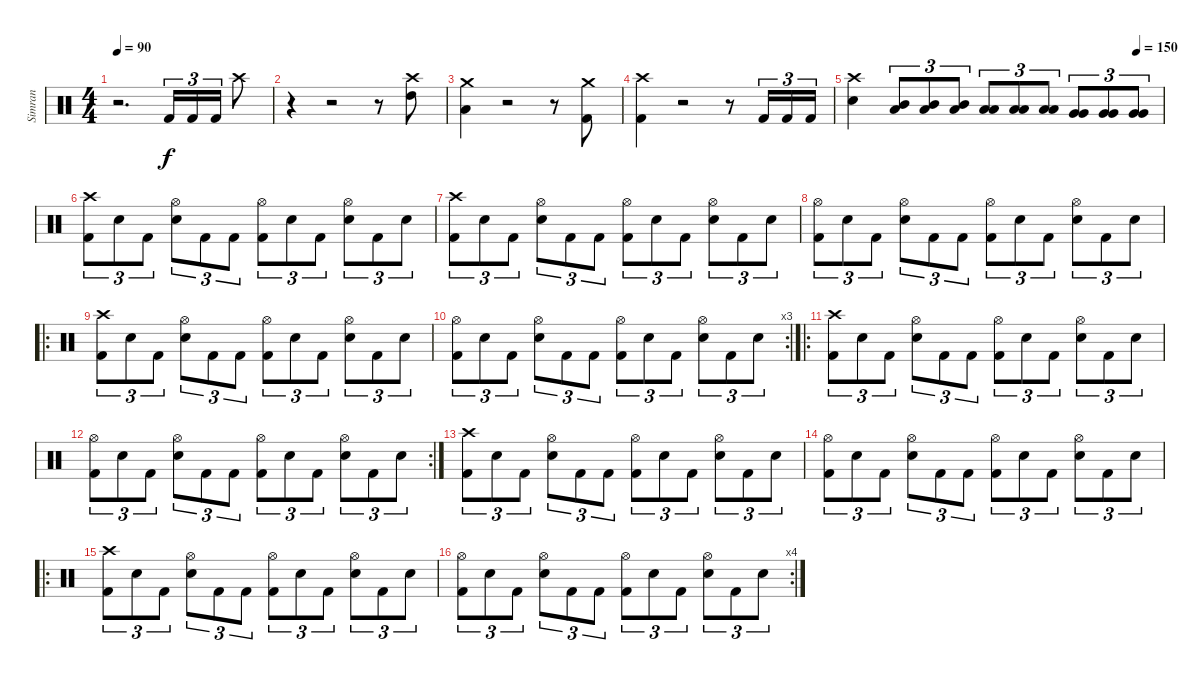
\track ("Simran" "Simran") {instrument percussion}
\staff {score}
\articulation defaults
\ts (4 4)
\tempo 90
\clef neutral
\ks c
r.2{d dy f} "Kick (hit) 2".16{tu (3 2)} "Kick (hit) 2".16{tu (3 2)} "Kick (hit) 2".16{tu (3 2)} "Crash high (hit)".8 |
r.4 r.2 r.8 ("Crash high (hit)" "High Tom (hit)").8 |
("Low Tom (hit)" "Crash medium (hit)").4 r.2 r.8 ("Crash medium (hit)" "Kick (hit) 2").8 |
("Crash high (hit)" "Kick (hit) 2").4 r.2 r.8 "Kick (hit) 2".16{tu (3 2)} "Kick (hit) 2".16{tu (3 2)} "Kick (hit) 2".16{tu (3 2)} |
\tempo (150 0.9166666666666666)
("Snare (hit) 2" "Crash high (hit)").4 ("Low Tom (hit)" "Mid Tom (hit)").8{tu (3 2)} ("Low Tom (hit)" "Mid Tom (hit)").8{tu (3 2)} ("Low Tom (hit)" "Mid Tom (hit)").8{tu (3 2)} ("Low Tom (hit)" "Low Tom (hit)").8{tu (3 2)} ("Low Tom (hit)" "Low Tom (hit)").8{tu (3 2)} ("Low Tom (hit)" "Low Tom (hit)").8{tu (3 2)} ("Very Low Tom (hit)" "Very Low Tom (hit)").8{tu (3 2)} ("Very Low Tom (hit)" "Very Low Tom (hit)").8{tu (3 2)} ("Very Low Tom (hit)" "Very Low Tom (hit)").8{tu (3 2)} |
("Crash high (hit)" "Kick (hit) 2").8{tu (3 2)} "Snare (hit)".8{tu (3 2)} "Kick (hit) 2".8{tu (3 2)} ("Hi-Hat (open)" "Snare (hit) 2").8{tu (3 2)} "Kick (hit) 2".8{tu (3 2)} "Kick (hit) 2".8{tu (3 2)} ("Hi-Hat (open)" "Kick (hit) 2").8{tu (3 2)} "Snare (hit)".8{tu (3 2)} "Kick (hit) 2".8{tu (3 2)} ("Hi-Hat (open)" "Snare (hit) 2").8{tu (3 2)} "Kick (hit) 2".8{tu (3 2)} "Snare (hit)".8{tu (3 2)} |
("Crash high (hit)" "Kick (hit) 2").8{tu (3 2)} "Snare (hit)".8{tu (3 2)} "Kick (hit) 2".8{tu (3 2)} ("Hi-Hat (open)" "Snare (hit) 2").8{tu (3 2)} "Kick (hit) 2".8{tu (3 2)} "Kick (hit) 2".8{tu (3 2)} ("Hi-Hat (open)" "Kick (hit) 2").8{tu (3 2)} "Snare (hit)".8{tu (3 2)} "Kick (hit) 2".8{tu (3 2)} ("Hi-Hat (open)" "Snare (hit) 2").8{tu (3 2)} "Kick (hit) 2".8{tu (3 2)} "Snare (hit)".8{tu (3 2)} |
("Hi-Hat (open)" "Kick (hit) 2").8{tu (3 2)} "Snare (hit)".8{tu (3 2)} "Kick (hit) 2".8{tu (3 2)} ("Hi-Hat (open)" "Snare (hit) 2").8{tu (3 2)} "Kick (hit) 2".8{tu (3 2)} "Kick (hit) 2".8{tu (3 2)} ("Hi-Hat (open)" "Kick (hit) 2").8{tu (3 2)} "Snare (hit)".8{tu (3 2)} "Kick (hit) 2".8{tu (3 2)} ("Hi-Hat (open)" "Snare (hit) 2").8{tu (3 2)} "Kick (hit) 2".8{tu (3 2)} "Snare (hit)".8{tu (3 2)} |
\ro
("Crash high (hit)" "Kick (hit) 2").8{tu (3 2)} "Snare (hit)".8{tu (3 2)} "Kick (hit) 2".8{tu (3 2)} ("Hi-Hat (open)" "Snare (hit) 2").8{tu (3 2)} "Kick (hit) 2".8{tu (3 2)} "Kick (hit) 2".8{tu (3 2)} ("Hi-Hat (open)" "Kick (hit) 2").8{tu (3 2)} "Snare (hit)".8{tu (3 2)} "Kick (hit) 2".8{tu (3 2)} ("Hi-Hat (open)" "Snare (hit) 2").8{tu (3 2)} "Kick (hit) 2".8{tu (3 2)} "Snare (hit)".8{tu (3 2)} |
\rc 3
("Hi-Hat (open)" "Kick (hit) 2").8{tu (3 2)} "Snare (hit)".8{tu (3 2)} "Kick (hit) 2".8{tu (3 2)} ("Hi-Hat (open)" "Snare (hit) 2").8{tu (3 2)} "Kick (hit) 2".8{tu (3 2)} "Kick (hit) 2".8{tu (3 2)} ("Hi-Hat (open)" "Kick (hit) 2").8{tu (3 2)} "Snare (hit)".8{tu (3 2)} "Kick (hit) 2".8{tu (3 2)} ("Hi-Hat (open)" "Snare (hit) 2").8{tu (3 2)} "Kick (hit) 2".8{tu (3 2)} "Snare (hit)".8{tu (3 2)} |
\ro
("Crash high (hit)" "Kick (hit) 2").8{tu (3 2)} "Snare (hit)".8{tu (3 2)} "Kick (hit) 2".8{tu (3 2)} ("Hi-Hat (open)" "Snare (hit) 2").8{tu (3 2)} "Kick (hit) 2".8{tu (3 2)} "Kick (hit) 2".8{tu (3 2)} ("Hi-Hat (open)" "Kick (hit) 2").8{tu (3 2)} "Snare (hit)".8{tu (3 2)} "Kick (hit) 2".8{tu (3 2)} ("Hi-Hat (open)" "Snare (hit) 2").8{tu (3 2)} "Kick (hit) 2".8{tu (3 2)} "Snare (hit)".8{tu (3 2)} |
\rc 2
("Hi-Hat (open)" "Kick (hit) 2").8{tu (3 2)} "Snare (hit)".8{tu (3 2)} "Kick (hit) 2".8{tu (3 2)} ("Hi-Hat (open)" "Snare (hit) 2").8{tu (3 2)} "Kick (hit) 2".8{tu (3 2)} "Kick (hit) 2".8{tu (3 2)} ("Hi-Hat (open)" "Kick (hit) 2").8{tu (3 2)} "Snare (hit)".8{tu (3 2)} "Kick (hit) 2".8{tu (3 2)} ("Hi-Hat (open)" "Snare (hit) 2").8{tu (3 2)} "Kick (hit) 2".8{tu (3 2)} "Snare (hit)".8{tu (3 2)} |
("Crash high (hit)" "Kick (hit) 2").8{tu (3 2)} "Snare (hit)".8{tu (3 2)} "Kick (hit) 2".8{tu (3 2)} ("Hi-Hat (open)" "Snare (hit) 2").8{tu (3 2)} "Kick (hit) 2".8{tu (3 2)} "Kick (hit) 2".8{tu (3 2)} ("Hi-Hat (open)" "Kick (hit) 2").8{tu (3 2)} "Snare (hit)".8{tu (3 2)} "Kick (hit) 2".8{tu (3 2)} ("Hi-Hat (open)" "Snare (hit) 2").8{tu (3 2)} "Kick (hit) 2".8{tu (3 2)} "Snare (hit)".8{tu (3 2)} |
("Hi-Hat (open)" "Kick (hit) 2").8{tu (3 2)} "Snare (hit)".8{tu (3 2)} "Kick (hit) 2".8{tu (3 2)} ("Hi-Hat (open)" "Snare (hit) 2").8{tu (3 2)} "Kick (hit) 2".8{tu (3 2)} "Kick (hit) 2".8{tu (3 2)} ("Hi-Hat (open)" "Kick (hit) 2").8{tu (3 2)} "Snare (hit)".8{tu (3 2)} "Kick (hit) 2".8{tu (3 2)} ("Hi-Hat (open)" "Snare (hit) 2").8{tu (3 2)} "Kick (hit) 2".8{tu (3 2)} "Snare (hit)".8{tu (3 2)} |
\ro
("Crash high (hit)" "Kick (hit) 2").8{tu (3 2)} "Snare (hit)".8{tu (3 2)} "Kick (hit) 2".8{tu (3 2)} ("Hi-Hat (open)" "Snare (hit) 2").8{tu (3 2)} "Kick (hit) 2".8{tu (3 2)} "Kick (hit) 2".8{tu (3 2)} ("Hi-Hat (open)" "Kick (hit) 2").8{tu (3 2)} "Snare (hit)".8{tu (3 2)} "Kick (hit) 2".8{tu (3 2)} ("Hi-Hat (open)" "Snare (hit) 2").8{tu (3 2)} "Kick (hit) 2".8{tu (3 2)} "Snare (hit)".8{tu (3 2)} |
\rc 4
("Hi-Hat (open)" "Kick (hit) 2").8{tu (3 2)} "Snare (hit)".8{tu (3 2)} "Kick (hit) 2".8{tu (3 2)} ("Hi-Hat (open)" "Snare (hit) 2").8{tu (3 2)} "Kick (hit) 2".8{tu (3 2)} "Kick (hit) 2".8{tu (3 2)} ("Hi-Hat (open)" "Kick (hit) 2").8{tu (3 2)} "Snare (hit)".8{tu (3 2)} "Kick (hit) 2".8{tu (3 2)} ("Hi-Hat (open)" "Snare (hit) 2").8{tu (3 2)} "Kick (hit) 2".8{tu (3 2)} "Snare (hit)".8{tu (3 2)}
